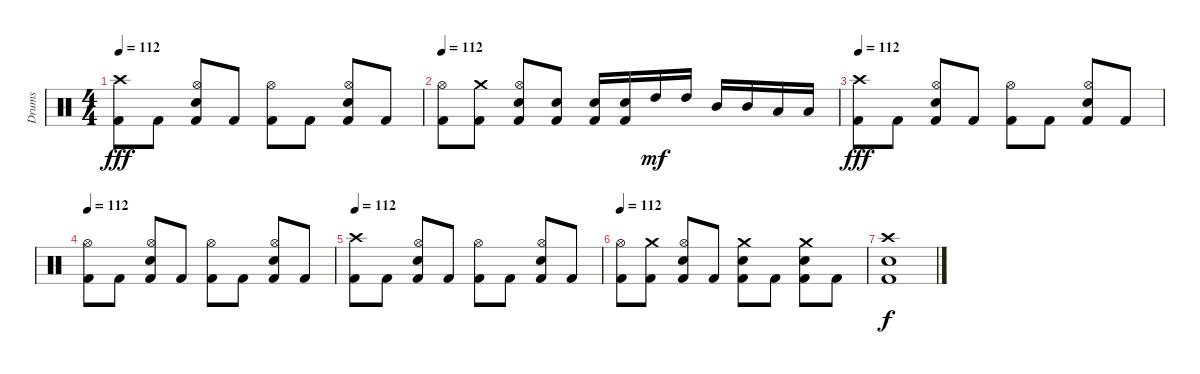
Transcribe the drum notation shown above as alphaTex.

\track ("Drums" "Drums") {instrument percussion}
\staff {score}
\articulation defaults
\ts (4 4)
\tempo 112
\clef neutral
\ks c
("Crash high (hit)" "Kick (hit) 2").8{dy fff} "Kick (hit) 2".8 ("Hi-Hat (open)" "Snare (hit) 2" "Kick (hit) 2").8 "Kick (hit) 2".8 ("Hi-Hat (open)" "Kick (hit) 2").8 "Kick (hit) 2".8 ("Hi-Hat (open)" "Snare (hit) 2" "Kick (hit) 2").8 "Kick (hit) 2".8 |
\tempo 112
("Hi-Hat (open)" "Kick (hit) 2").8 ("Crash medium (hit)" "Kick (hit) 2").8 ("Hi-Hat (open)" "Snare (hit) 2" "Kick (hit) 2").8 ("Snare (hit) 2" "Kick (hit) 2").8 ("Snare (hit) 2" "Kick (hit) 2").16 ("Snare (hit) 2" "Kick (hit) 2").16 "High Tom (hit)".16{dy mf} "High Tom (hit)".16 "Mid Tom (hit)".16 "Mid Tom (hit)".16 "Low Tom (hit)".16 "Low Tom (hit)".16 |
\tempo 112
("Crash high (hit)" "Kick (hit) 2").8{dy fff} "Kick (hit) 2".8 ("Hi-Hat (open)" "Snare (hit) 2" "Kick (hit) 2").8 "Kick (hit) 2".8 ("Hi-Hat (open)" "Kick (hit) 2").8 "Kick (hit) 2".8 ("Hi-Hat (open)" "Snare (hit) 2" "Kick (hit) 2").8 "Kick (hit) 2".8 |
\tempo 112
("Hi-Hat (open)" "Kick (hit) 2").8 "Kick (hit) 2".8 ("Hi-Hat (open)" "Snare (hit) 2" "Kick (hit) 2").8 "Kick (hit) 2".8 ("Hi-Hat (open)" "Kick (hit) 2").8 "Kick (hit) 2".8 ("Hi-Hat (open)" "Snare (hit) 2" "Kick (hit) 2").8 "Kick (hit) 2".8 |
\tempo 112
("Crash high (hit)" "Kick (hit) 2").8 "Kick (hit) 2".8 ("Hi-Hat (open)" "Snare (hit) 2" "Kick (hit) 2").8 "Kick (hit) 2".8 ("Hi-Hat (open)" "Kick (hit) 2").8 "Kick (hit) 2".8 ("Hi-Hat (open)" "Snare (hit) 2" "Kick (hit) 2").8 "Kick (hit) 2".8 |
\tempo 112
("Hi-Hat (open)" "Kick (hit) 2").8 ("Crash medium (hit)" "Kick (hit) 2").8 ("Hi-Hat (open)" "Snare (hit) 2" "Kick (hit) 2").8 "Kick (hit) 2".8 ("Crash medium (hit)" "Snare (hit) 2" "Kick (hit) 2").8 "Kick (hit) 2".8 ("Crash medium (hit)" "Snare (hit) 2" "Kick (hit) 2").8 "Kick (hit) 2".8 |
("Crash high (hit)" "Snare (hit) 2" "Kick (hit) 2").1{dy f}
